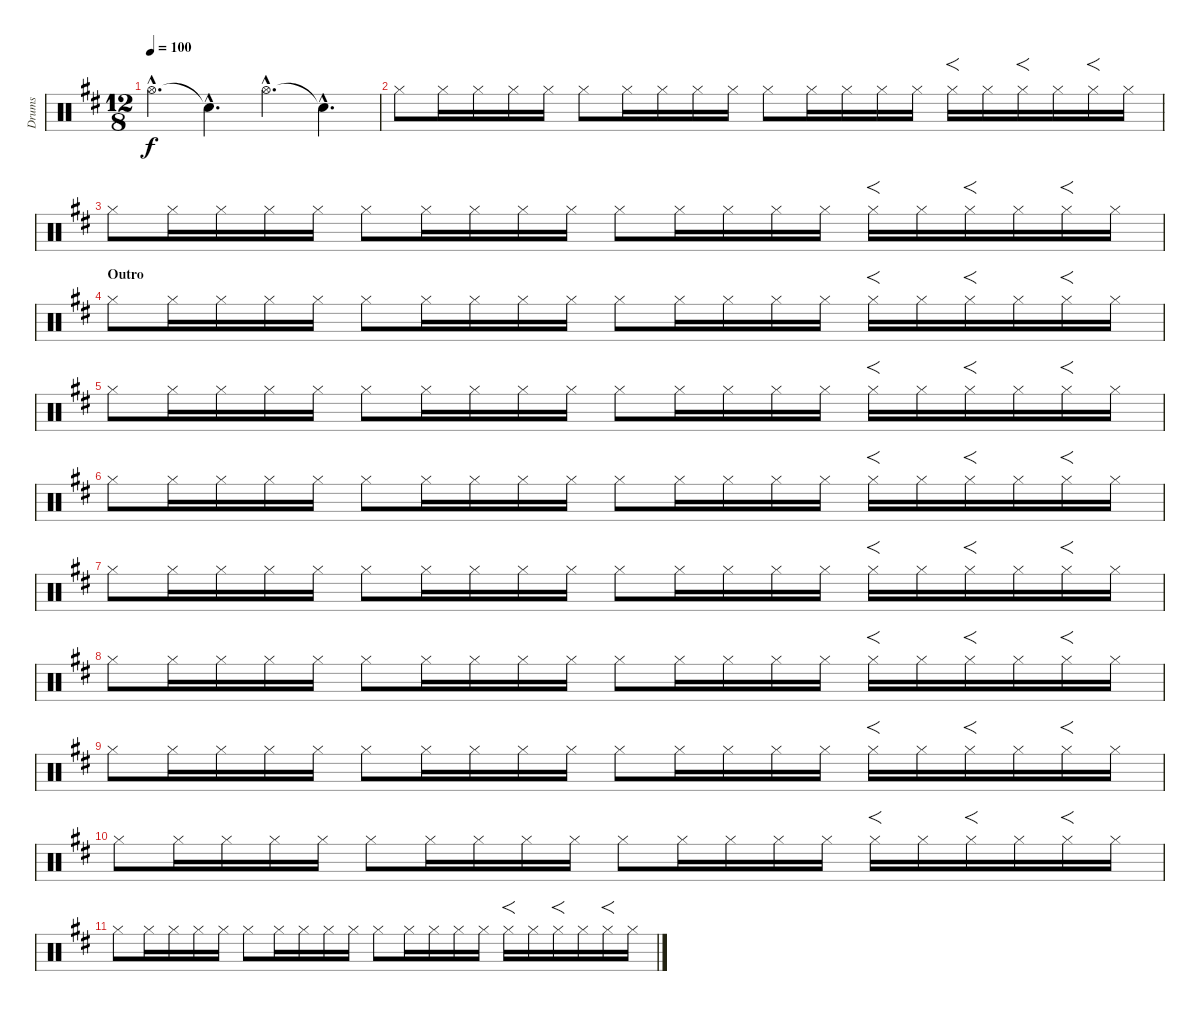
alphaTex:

\track ("Drums" "Drums") {instrument percussion}
\staff {score}
\articulation defaults
\ts (12 8)
\tempo 100
\clef neutral
\ks d "Hi-Hat (open)"{hac}.4{d dy f} "Snare (hit)"{hac t}.4{d} "Hi-Hat (open)"{hac}.4{d} "Snare (hit)"{hac t}.4{d}
|
"Hi-Hat (closed)".8 "Hi-Hat (closed)".16 "Hi-Hat (closed)".16 "Hi-Hat (closed)".16 "Hi-Hat (closed)".16 "Hi-Hat (closed)".8 "Hi-Hat (closed)".16 "Hi-Hat (closed)".16 "Hi-Hat (closed)".16 "Hi-Hat (closed)".16 "Hi-Hat (closed)".8 "Hi-Hat (closed)".16 "Hi-Hat (closed)".16 "Hi-Hat (closed)".16 "Hi-Hat (closed)".16 "Hi-Hat (closed)".16{f} "Hi-Hat (closed)".16 "Hi-Hat (closed)".16{f} "Hi-Hat (closed)".16 "Hi-Hat (closed)".16{f} "Hi-Hat (closed)".16 |
"Hi-Hat (closed)".8 "Hi-Hat (closed)".16 "Hi-Hat (closed)".16 "Hi-Hat (closed)".16 "Hi-Hat (closed)".16 "Hi-Hat (closed)".8 "Hi-Hat (closed)".16 "Hi-Hat (closed)".16 "Hi-Hat (closed)".16 "Hi-Hat (closed)".16 "Hi-Hat (closed)".8 "Hi-Hat (closed)".16 "Hi-Hat (closed)".16 "Hi-Hat (closed)".16 "Hi-Hat (closed)".16 "Hi-Hat (closed)".16{f} "Hi-Hat (closed)".16 "Hi-Hat (closed)".16{f} "Hi-Hat (closed)".16 "Hi-Hat (closed)".16{f} "Hi-Hat (closed)".16 |
\section ("" "Outro")
"Hi-Hat (closed)".8 "Hi-Hat (closed)".16 "Hi-Hat (closed)".16 "Hi-Hat (closed)".16 "Hi-Hat (closed)".16 "Hi-Hat (closed)".8 "Hi-Hat (closed)".16 "Hi-Hat (closed)".16 "Hi-Hat (closed)".16 "Hi-Hat (closed)".16 "Hi-Hat (closed)".8 "Hi-Hat (closed)".16 "Hi-Hat (closed)".16 "Hi-Hat (closed)".16 "Hi-Hat (closed)".16 "Hi-Hat (closed)".16{f} "Hi-Hat (closed)".16 "Hi-Hat (closed)".16{f} "Hi-Hat (closed)".16 "Hi-Hat (closed)".16{f} "Hi-Hat (closed)".16 |
"Hi-Hat (closed)".8 "Hi-Hat (closed)".16 "Hi-Hat (closed)".16 "Hi-Hat (closed)".16 "Hi-Hat (closed)".16 "Hi-Hat (closed)".8 "Hi-Hat (closed)".16 "Hi-Hat (closed)".16 "Hi-Hat (closed)".16 "Hi-Hat (closed)".16 "Hi-Hat (closed)".8 "Hi-Hat (closed)".16 "Hi-Hat (closed)".16 "Hi-Hat (closed)".16 "Hi-Hat (closed)".16 "Hi-Hat (closed)".16{f} "Hi-Hat (closed)".16 "Hi-Hat (closed)".16{f} "Hi-Hat (closed)".16 "Hi-Hat (closed)".16{f} "Hi-Hat (closed)".16 |
"Hi-Hat (closed)".8 "Hi-Hat (closed)".16 "Hi-Hat (closed)".16 "Hi-Hat (closed)".16 "Hi-Hat (closed)".16 "Hi-Hat (closed)".8 "Hi-Hat (closed)".16 "Hi-Hat (closed)".16 "Hi-Hat (closed)".16 "Hi-Hat (closed)".16 "Hi-Hat (closed)".8 "Hi-Hat (closed)".16 "Hi-Hat (closed)".16 "Hi-Hat (closed)".16 "Hi-Hat (closed)".16 "Hi-Hat (closed)".16{f} "Hi-Hat (closed)".16 "Hi-Hat (closed)".16{f} "Hi-Hat (closed)".16 "Hi-Hat (closed)".16{f} "Hi-Hat (closed)".16 |
"Hi-Hat (closed)".8 "Hi-Hat (closed)".16 "Hi-Hat (closed)".16 "Hi-Hat (closed)".16 "Hi-Hat (closed)".16 "Hi-Hat (closed)".8 "Hi-Hat (closed)".16 "Hi-Hat (closed)".16 "Hi-Hat (closed)".16 "Hi-Hat (closed)".16 "Hi-Hat (closed)".8 "Hi-Hat (closed)".16 "Hi-Hat (closed)".16 "Hi-Hat (closed)".16 "Hi-Hat (closed)".16 "Hi-Hat (closed)".16{f} "Hi-Hat (closed)".16 "Hi-Hat (closed)".16{f} "Hi-Hat (closed)".16 "Hi-Hat (closed)".16{f} "Hi-Hat (closed)".16 |
"Hi-Hat (closed)".8 "Hi-Hat (closed)".16 "Hi-Hat (closed)".16 "Hi-Hat (closed)".16 "Hi-Hat (closed)".16 "Hi-Hat (closed)".8 "Hi-Hat (closed)".16 "Hi-Hat (closed)".16 "Hi-Hat (closed)".16 "Hi-Hat (closed)".16 "Hi-Hat (closed)".8 "Hi-Hat (closed)".16 "Hi-Hat (closed)".16 "Hi-Hat (closed)".16 "Hi-Hat (closed)".16 "Hi-Hat (closed)".16{f} "Hi-Hat (closed)".16 "Hi-Hat (closed)".16{f} "Hi-Hat (closed)".16 "Hi-Hat (closed)".16{f} "Hi-Hat (closed)".16 |
"Hi-Hat (closed)".8 "Hi-Hat (closed)".16 "Hi-Hat (closed)".16 "Hi-Hat (closed)".16 "Hi-Hat (closed)".16 "Hi-Hat (closed)".8 "Hi-Hat (closed)".16 "Hi-Hat (closed)".16 "Hi-Hat (closed)".16 "Hi-Hat (closed)".16 "Hi-Hat (closed)".8 "Hi-Hat (closed)".16 "Hi-Hat (closed)".16 "Hi-Hat (closed)".16 "Hi-Hat (closed)".16 "Hi-Hat (closed)".16{f} "Hi-Hat (closed)".16 "Hi-Hat (closed)".16{f} "Hi-Hat (closed)".16 "Hi-Hat (closed)".16{f} "Hi-Hat (closed)".16 |
"Hi-Hat (closed)".8 "Hi-Hat (closed)".16 "Hi-Hat (closed)".16 "Hi-Hat (closed)".16 "Hi-Hat (closed)".16 "Hi-Hat (closed)".8 "Hi-Hat (closed)".16 "Hi-Hat (closed)".16 "Hi-Hat (closed)".16 "Hi-Hat (closed)".16 "Hi-Hat (closed)".8 "Hi-Hat (closed)".16 "Hi-Hat (closed)".16 "Hi-Hat (closed)".16 "Hi-Hat (closed)".16 "Hi-Hat (closed)".16{f} "Hi-Hat (closed)".16 "Hi-Hat (closed)".16{f} "Hi-Hat (closed)".16 "Hi-Hat (closed)".16{f} "Hi-Hat (closed)".16 |
"Hi-Hat (closed)".8 "Hi-Hat (closed)".16 "Hi-Hat (closed)".16 "Hi-Hat (closed)".16 "Hi-Hat (closed)".16 "Hi-Hat (closed)".8 "Hi-Hat (closed)".16 "Hi-Hat (closed)".16 "Hi-Hat (closed)".16 "Hi-Hat (closed)".16 "Hi-Hat (closed)".8 "Hi-Hat (closed)".16 "Hi-Hat (closed)".16 "Hi-Hat (closed)".16 "Hi-Hat (closed)".16 "Hi-Hat (closed)".16{f} "Hi-Hat (closed)".16 "Hi-Hat (closed)".16{f} "Hi-Hat (closed)".16 "Hi-Hat (closed)".16{f} "Hi-Hat (closed)".16
